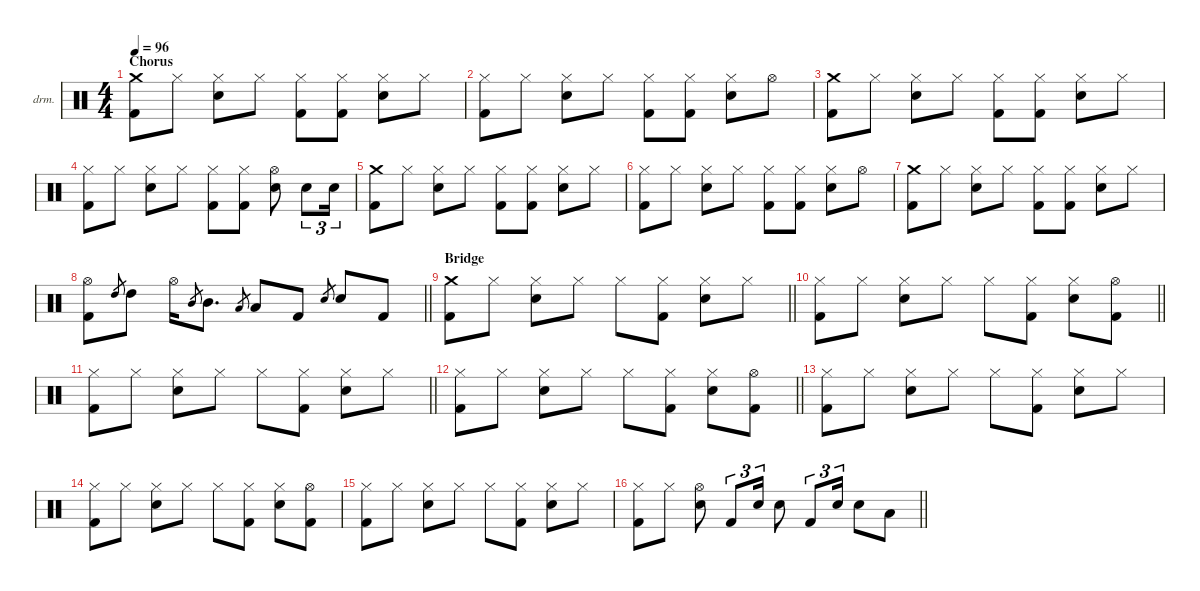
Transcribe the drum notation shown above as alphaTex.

\defaultSystemsLayout 4
\hideDynamics
\bracketExtendMode nobrackets
\firstSystemTrackNameOrientation horizontal
\otherSystemsTrackNameOrientation horizontal
\track ("Percussion" "drm.") {instrument percussion}
\staff {score}
\articulation defaults
\ts (4 4)
\section ("" "Chorus")
\tempo 96
\clef neutral
\ks c
("Crash medium (hit)" "Kick (hit) 2").8{dy f beam Down} "Hi-Hat (closed)".8{beam Down} ("Hi-Hat (closed)" "Snare (hit) 2").8{beam Down} "Hi-Hat (closed)".8{beam Down} ("Hi-Hat (closed)" "Kick (hit) 2").8{beam Down} ("Hi-Hat (closed)" "Kick (hit) 2").8{beam Down} ("Hi-Hat (closed)" "Snare (hit) 2").8{beam Down} "Hi-Hat (closed)".8{beam Down} |
("Hi-Hat (closed)" "Kick (hit) 2").8{beam Down} "Hi-Hat (closed)".8{beam Down} ("Hi-Hat (closed)" "Snare (hit) 2").8{beam Down} "Hi-Hat (closed)".8{beam Down} ("Hi-Hat (closed)" "Kick (hit) 2").8{beam Down} ("Hi-Hat (closed)" "Kick (hit) 2").8{beam Down} ("Hi-Hat (closed)" "Snare (hit) 2").8{beam Down} "Hi-Hat (open)".8{beam Down} |
("Crash medium (hit)" "Kick (hit) 2").8{beam Down} "Hi-Hat (closed)".8{beam Down} ("Hi-Hat (closed)" "Snare (hit) 2").8{beam Down} "Hi-Hat (closed)".8{beam Down} ("Hi-Hat (closed)" "Kick (hit) 2").8{beam Down} ("Hi-Hat (closed)" "Kick (hit) 2").8{beam Down} ("Hi-Hat (closed)" "Snare (hit) 2").8{beam Down} "Hi-Hat (closed)".8{beam Down} |
("Hi-Hat (closed)" "Kick (hit) 2").8{beam Down} "Hi-Hat (closed)".8{beam Down} ("Hi-Hat (closed)" "Snare (hit) 2").8{beam Down} "Hi-Hat (closed)".8{beam Down} ("Hi-Hat (closed)" "Kick (hit) 2").8{beam Down} ("Hi-Hat (closed)" "Kick (hit) 2").8{beam Down} ("Hi-Hat (open)" "Snare (hit) 2").8{beam Down} "Snare (hit) 2".8{tu (3 2) beam Down} "Snare (hit) 2".16{tu (3 2) beam Down} |
("Crash medium (hit)" "Kick (hit) 2").8{beam Down} "Hi-Hat (closed)".8{beam Down} ("Hi-Hat (closed)" "Snare (hit) 2").8{beam Down} "Hi-Hat (closed)".8{beam Down} ("Hi-Hat (closed)" "Kick (hit) 2").8{beam Down} ("Hi-Hat (closed)" "Kick (hit) 2").8{beam Down} ("Hi-Hat (closed)" "Snare (hit) 2").8{beam Down} "Hi-Hat (closed)".8{beam Down} |
("Hi-Hat (closed)" "Kick (hit) 2").8{beam Down} "Hi-Hat (closed)".8{beam Down} ("Hi-Hat (closed)" "Snare (hit) 2").8{beam Down} "Hi-Hat (closed)".8{beam Down} ("Hi-Hat (closed)" "Kick (hit) 2").8{beam Down} ("Hi-Hat (closed)" "Kick (hit) 2").8{beam Down} ("Hi-Hat (closed)" "Snare (hit) 2").8{beam Down} "Hi-Hat (open)".8{beam Down} |
("Crash medium (hit)" "Kick (hit) 2").8{beam Down} "Hi-Hat (closed)".8{beam Down} ("Hi-Hat (closed)" "Snare (hit) 2").8{beam Down} "Hi-Hat (closed)".8{beam Down} ("Hi-Hat (closed)" "Kick (hit) 2").8{beam Down} ("Hi-Hat (closed)" "Kick (hit) 2").8{beam Down} ("Hi-Hat (closed)" "Snare (hit) 2").8{beam Down} "Hi-Hat (closed)".8{beam Down} |
\barLineRight lightlight
("Hi-Hat (open)" "Kick (hit) 2").8{beam Down} "High Tom (hit)".8{gr dy mf beam Up} "High Tom (hit)".8{dy f beam Down} "Hi-Hat (open)".16{dy mf beam Down} "Mid Tom (hit)".8{gr beam Up} "Mid Tom (hit)".8{d dy f beam Down} "Low Tom (hit)".8{gr dy mf beam Up} "Low Tom (hit)".8{dy f beam Up} "Kick (hit) 2".8{beam Up} "Electric Snare (hit)".8{gr dy mf beam Up} "Snare (hit) 2".8{dy f beam Up} "Kick (hit) 2".8{beam Up} |
\section ("" "Bridge")
\barLineRight lightlight
("Crash medium (hit)" "Kick (hit) 2").8{beam Down} "Hi-Hat (closed)".8{beam Down} ("Hi-Hat (closed)" "Snare (hit) 2").8{beam Down} "Hi-Hat (closed)".8{beam Down} "Hi-Hat (closed)".8{beam Down} ("Hi-Hat (closed)" "Kick (hit) 2").8{beam Down} ("Hi-Hat (closed)" "Snare (hit) 2").8{beam Down} "Hi-Hat (closed)".8{beam Down} |
\barLineRight lightlight
("Hi-Hat (closed)" "Kick (hit) 2").8{beam Down} "Hi-Hat (closed)".8{beam Down} ("Hi-Hat (closed)" "Snare (hit) 2").8{beam Down} "Hi-Hat (closed)".8{beam Down} "Hi-Hat (closed)".8{beam Down} ("Hi-Hat (closed)" "Kick (hit) 2").8{beam Down} ("Hi-Hat (closed)" "Snare (hit) 2").8{beam Down} ("Hi-Hat (open)" "Kick (hit) 2").8{dy mf beam Down} |
\barLineRight lightlight
("Hi-Hat (closed)" "Kick (hit) 2").8{dy f beam Down} "Hi-Hat (closed)".8{beam Down} ("Hi-Hat (closed)" "Snare (hit) 2").8{beam Down} "Hi-Hat (closed)".8{beam Down} "Hi-Hat (closed)".8{beam Down} ("Hi-Hat (closed)" "Kick (hit) 2").8{beam Down} ("Hi-Hat (closed)" "Snare (hit) 2").8{beam Down} "Hi-Hat (closed)".8{beam Down} |
\barLineRight lightlight
("Hi-Hat (closed)" "Kick (hit) 2").8{beam Down} "Hi-Hat (closed)".8{beam Down} ("Hi-Hat (closed)" "Snare (hit) 2").8{beam Down} "Hi-Hat (closed)".8{beam Down} "Hi-Hat (closed)".8{beam Down} ("Hi-Hat (closed)" "Kick (hit) 2").8{beam Down} ("Hi-Hat (closed)" "Snare (hit) 2").8{beam Down} ("Hi-Hat (open)" "Kick (hit) 2").8{dy mf beam Down} |
("Hi-Hat (closed)" "Kick (hit) 2").8{dy f beam Down} "Hi-Hat (closed)".8{beam Down} ("Hi-Hat (closed)" "Snare (hit) 2").8{beam Down} "Hi-Hat (closed)".8{beam Down} "Hi-Hat (closed)".8{beam Down} ("Hi-Hat (closed)" "Kick (hit) 2").8{beam Down} ("Hi-Hat (closed)" "Snare (hit) 2").8{beam Down} "Hi-Hat (closed)".8{beam Down} |
("Hi-Hat (closed)" "Kick (hit) 2").8{beam Down} "Hi-Hat (closed)".8{beam Down} ("Hi-Hat (closed)" "Snare (hit) 2").8{beam Down} "Hi-Hat (closed)".8{beam Down} "Hi-Hat (closed)".8{beam Down} ("Hi-Hat (closed)" "Kick (hit) 2").8{beam Down} ("Hi-Hat (closed)" "Snare (hit) 2").8{beam Down} ("Hi-Hat (open)" "Kick (hit) 2").8{dy mf beam Down} |
("Hi-Hat (closed)" "Kick (hit) 2").8{dy f beam Down} "Hi-Hat (closed)".8{beam Down} ("Hi-Hat (closed)" "Snare (hit) 2").8{beam Down} "Hi-Hat (closed)".8{beam Down} "Hi-Hat (closed)".8{beam Down} ("Hi-Hat (closed)" "Kick (hit) 2").8{beam Down} ("Hi-Hat (closed)" "Snare (hit) 2").8{beam Down} "Hi-Hat (closed)".8{beam Down} |
\barLineRight lightlight
("Hi-Hat (closed)" "Kick (hit) 2").8{beam Down} "Hi-Hat (closed)".8{beam Down} ("Hi-Hat (open)" "Snare (hit) 2").8{beam Down} "Kick (hit) 2".8{tu (3 2) beam Up} "Snare (hit) 2".16{tu (3 2) beam Up} "Snare (hit) 2".8{beam Down} "Kick (hit) 2".8{tu (3 2) beam Up} "Snare (hit) 2".16{tu (3 2) beam Up} "Snare (hit) 2".8{beam Down} "Low Tom (hit)".8{beam Down}
